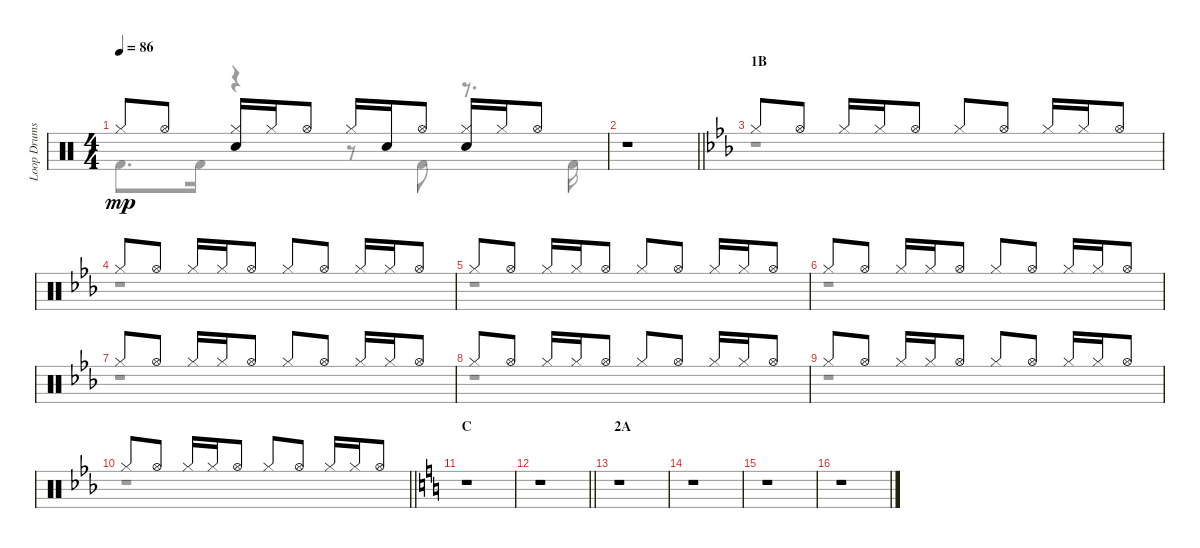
\track ("Loop Drums II" "Loop Drums") {instrument percussion}
\staff {score}
\articulation defaults
\voice
\ts (4 4)
\tempo 86
\clef neutral
\ks c "Hi-Hat (closed)".8{dy mp} "Hi-Hat (open)".8
("Hi-Hat (closed)" "Electric Snare (hit)").16 "Hi-Hat (closed)".16 "Hi-Hat (open)".8 "Hi-Hat (closed)".16 "Electric Snare (hit)".16 "Hi-Hat (open)".8 ("Hi-Hat (closed)" "Electric Snare (hit)").16 "Hi-Hat (closed)".16 "Hi-Hat (open)".8 |
\barLineRight lightlight
r.1 |
\section ("" "1B")
\ks eb "Hi-Hat (closed)".8 "Hi-Hat (open)".8 "Hi-Hat (closed)".16 "Hi-Hat (closed)".16 "Hi-Hat (open)".8 "Hi-Hat (closed)".8 "Hi-Hat (open)".8 "Hi-Hat (closed)".16 "Hi-Hat (closed)".16 "Hi-Hat (open)".8
|
"Hi-Hat (closed)".8 "Hi-Hat (open)".8 "Hi-Hat (closed)".16 "Hi-Hat (closed)".16 "Hi-Hat (open)".8 "Hi-Hat (closed)".8 "Hi-Hat (open)".8 "Hi-Hat (closed)".16 "Hi-Hat (closed)".16 "Hi-Hat (open)".8 |
"Hi-Hat (closed)".8 "Hi-Hat (open)".8 "Hi-Hat (closed)".16 "Hi-Hat (closed)".16 "Hi-Hat (open)".8 "Hi-Hat (closed)".8 "Hi-Hat (open)".8 "Hi-Hat (closed)".16 "Hi-Hat (closed)".16 "Hi-Hat (open)".8 |
"Hi-Hat (closed)".8 "Hi-Hat (open)".8 "Hi-Hat (closed)".16 "Hi-Hat (closed)".16 "Hi-Hat (open)".8 "Hi-Hat (closed)".8 "Hi-Hat (open)".8 "Hi-Hat (closed)".16 "Hi-Hat (closed)".16 "Hi-Hat (open)".8 |
"Hi-Hat (closed)".8 "Hi-Hat (open)".8 "Hi-Hat (closed)".16 "Hi-Hat (closed)".16 "Hi-Hat (open)".8 "Hi-Hat (closed)".8 "Hi-Hat (open)".8 "Hi-Hat (closed)".16 "Hi-Hat (closed)".16 "Hi-Hat (open)".8 |
"Hi-Hat (closed)".8 "Hi-Hat (open)".8 "Hi-Hat (closed)".16 "Hi-Hat (closed)".16 "Hi-Hat (open)".8 "Hi-Hat (closed)".8 "Hi-Hat (open)".8 "Hi-Hat (closed)".16 "Hi-Hat (closed)".16 "Hi-Hat (open)".8 |
"Hi-Hat (closed)".8 "Hi-Hat (open)".8 "Hi-Hat (closed)".16 "Hi-Hat (closed)".16 "Hi-Hat (open)".8 "Hi-Hat (closed)".8 "Hi-Hat (open)".8 "Hi-Hat (closed)".16 "Hi-Hat (closed)".16 "Hi-Hat (open)".8 |
\barLineRight lightlight "Hi-Hat (closed)".8 "Hi-Hat (open)".8 "Hi-Hat (closed)".16 "Hi-Hat (closed)".16 "Hi-Hat (open)".8 "Hi-Hat (closed)".8 "Hi-Hat (open)".8 "Hi-Hat (closed)".16 "Hi-Hat (closed)".16 "Hi-Hat (open)".8
|
\section ("" "C")
\ks c
r.1 |
\barLineRight lightlight
r.1 |
\section ("" "2A")
r.1 |
r.1 |
r.1 |
r.1
\voice
\clef neutral
\ottava regular
\simile none
\ks c "Kick (hit) 2".8{d dy mp} "Kick (hit) 2".16
r.4 r.8 "Kick (hit) 2".8 r.8{d} "Kick (hit) 2".16 |
\barLineRight lightlight
r.1 |
\ks eb
r.1 |
r.1 |
r.1 |
r.1 |
r.1 |
r.1 |
r.1 |
\barLineRight lightlight
r.1 |
\ks c
r.1 |
\barLineRight lightlight
r.1 |
r.1 |
r.1 |
r.1 |
r.1
